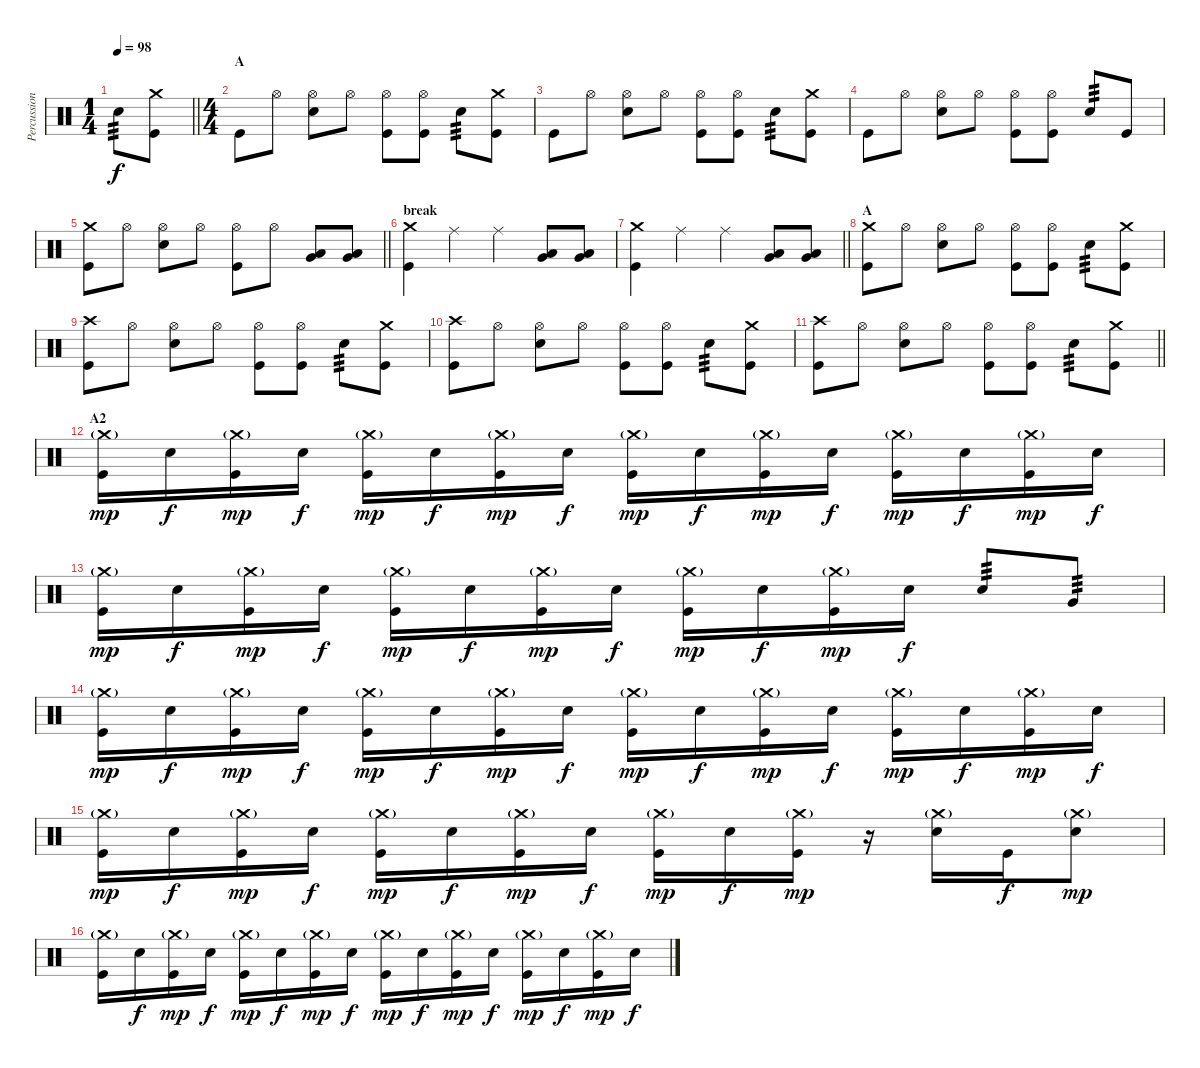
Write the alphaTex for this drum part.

\track ("Percussion" "Percussion") {instrument percussion}
\staff {score}
\articulation defaults
\ts (1 4)
\tempo 98
\clef neutral
\barLineRight lightlight
\ks c "Snare (hit) 2".8{tp 3 dy f}
("Kick (hit)" "Crash medium (hit)").8 |
\ts (4 4)
\section ("" "A")
"Kick (hit)".8 "Hi-Hat (open)".8 ("Hi-Hat (open)" "Snare (hit) 2").8 "Hi-Hat (open)".8 ("Hi-Hat (open)" "Kick (hit)").8 ("Hi-Hat (open)" "Kick (hit)").8 "Snare (hit) 2".8{tp 3} ("Kick (hit)" "Crash medium (hit)").8 |
"Kick (hit)".8 "Hi-Hat (open)".8 ("Hi-Hat (open)" "Snare (hit) 2").8 "Hi-Hat (open)".8 ("Hi-Hat (open)" "Kick (hit)").8 ("Hi-Hat (open)" "Kick (hit)").8 "Snare (hit) 2".8{tp 3} ("Kick (hit)" "Crash medium (hit)").8 |
"Kick (hit)".8 "Hi-Hat (open)".8 ("Hi-Hat (open)" "Snare (hit) 2").8 "Hi-Hat (open)".8 ("Hi-Hat (open)" "Kick (hit)").8 ("Hi-Hat (open)" "Kick (hit)").8 "Snare (hit) 2".8{tp 3} "Kick (hit)".8 |
\barLineRight lightlight
("Kick (hit)" "Crash medium (hit)").8 "Hi-Hat (open)".8 ("Hi-Hat (open)" "Snare (hit) 2").8 "Hi-Hat (open)".8 ("Hi-Hat (open)" "Kick (hit)").8 "Hi-Hat (open)".8 ("Low Floor Tom (hit)" "Very Low Tom (hit)").8 ("Low Floor Tom (hit)" "Very Low Tom (hit)").8 |
\section ("" "break")
("Kick (hit)" "Crash medium (hit)").4 "Ride (middle)".4 "Ride (middle)".4 ("Low Floor Tom (hit)" "Very Low Tom (hit)").8 ("Low Floor Tom (hit)" "Very Low Tom (hit)").8 |
\barLineRight lightlight
("Kick (hit)" "Crash medium (hit)").4 "Ride (middle)".4 "Ride (middle)".4 ("Low Floor Tom (hit)" "Very Low Tom (hit)").8 ("Low Floor Tom (hit)" "Very Low Tom (hit)").8 |
\section ("" "A")
("Kick (hit)" "Crash medium (hit)").8 "Hi-Hat (open)".8 ("Hi-Hat (open)" "Snare (hit) 2").8 "Hi-Hat (open)".8 ("Hi-Hat (open)" "Kick (hit)").8 ("Hi-Hat (open)" "Kick (hit)").8 "Snare (hit) 2".8{tp 3} ("Kick (hit)" "Crash medium (hit)").8 |
("Kick (hit)" "Crash high (hit)").8 "Hi-Hat (open)".8 ("Hi-Hat (open)" "Snare (hit) 2").8 "Hi-Hat (open)".8 ("Hi-Hat (open)" "Kick (hit)").8 ("Hi-Hat (open)" "Kick (hit)").8 "Snare (hit) 2".8{tp 3} ("Kick (hit)" "Crash medium (hit)").8 |
("Kick (hit)" "Crash high (hit)").8 "Hi-Hat (open)".8 ("Hi-Hat (open)" "Snare (hit) 2").8 "Hi-Hat (open)".8 ("Hi-Hat (open)" "Kick (hit)").8 ("Hi-Hat (open)" "Kick (hit)").8 "Snare (hit) 2".8{tp 3} ("Kick (hit)" "Crash medium (hit)").8 |
\barLineRight lightlight
("Kick (hit)" "Crash high (hit)").8 "Hi-Hat (open)".8 ("Hi-Hat (open)" "Snare (hit) 2").8 "Hi-Hat (open)".8 ("Hi-Hat (open)" "Kick (hit)").8 ("Hi-Hat (open)" "Kick (hit)").8 "Snare (hit) 2".8{tp 3} ("Kick (hit)" "Crash medium (hit)").8 |
\section ("" "A2")
("Kick (hit)" "Crash medium (hit)"{g}).16{dy mp} "Snare (hit) 2".16{dy f} ("Kick (hit)" "Crash medium (hit)"{g}).16{dy mp} "Snare (hit) 2".16{dy f} ("Kick (hit)" "Crash medium (hit)"{g}).16{dy mp} "Snare (hit) 2".16{dy f} ("Kick (hit)" "Crash medium (hit)"{g}).16{dy mp} "Snare (hit) 2".16{dy f} ("Kick (hit)" "Crash medium (hit)"{g}).16{dy mp} "Snare (hit) 2".16{dy f} ("Kick (hit)" "Crash medium (hit)"{g}).16{dy mp} "Snare (hit) 2".16{dy f} ("Kick (hit)" "Crash medium (hit)"{g}).16{dy mp} "Snare (hit) 2".16{dy f} ("Kick (hit)" "Crash medium (hit)"{g}).16{dy mp} "Snare (hit) 2".16{dy f} |
("Kick (hit)" "Crash medium (hit)"{g}).16{dy mp} "Snare (hit) 2".16{dy f} ("Kick (hit)" "Crash medium (hit)"{g}).16{dy mp} "Snare (hit) 2".16{dy f} ("Kick (hit)" "Crash medium (hit)"{g}).16{dy mp} "Snare (hit) 2".16{dy f} ("Kick (hit)" "Crash medium (hit)"{g}).16{dy mp} "Snare (hit) 2".16{dy f} ("Kick (hit)" "Crash medium (hit)"{g}).16{dy mp} "Snare (hit) 2".16{dy f} ("Kick (hit)" "Crash medium (hit)"{g}).16{dy mp} "Snare (hit) 2".16{dy f} "Snare (hit) 2".8{tp 3} "Very Low Tom (hit)".8{tp 3} |
("Kick (hit)" "Crash medium (hit)"{g}).16{dy mp} "Snare (hit) 2".16{dy f} ("Kick (hit)" "Crash medium (hit)"{g}).16{dy mp} "Snare (hit) 2".16{dy f} ("Kick (hit)" "Crash medium (hit)"{g}).16{dy mp} "Snare (hit) 2".16{dy f} ("Kick (hit)" "Crash medium (hit)"{g}).16{dy mp} "Snare (hit) 2".16{dy f} ("Kick (hit)" "Crash medium (hit)"{g}).16{dy mp} "Snare (hit) 2".16{dy f} ("Kick (hit)" "Crash medium (hit)"{g}).16{dy mp} "Snare (hit) 2".16{dy f} ("Kick (hit)" "Crash medium (hit)"{g}).16{dy mp} "Snare (hit) 2".16{dy f} ("Kick (hit)" "Crash medium (hit)"{g}).16{dy mp} "Snare (hit) 2".16{dy f} |
("Kick (hit)" "Crash medium (hit)"{g}).16{dy mp} "Snare (hit) 2".16{dy f} ("Kick (hit)" "Crash medium (hit)"{g}).16{dy mp} "Snare (hit) 2".16{dy f} ("Kick (hit)" "Crash medium (hit)"{g}).16{dy mp} "Snare (hit) 2".16{dy f} ("Kick (hit)" "Crash medium (hit)"{g}).16{dy mp} "Snare (hit) 2".16{dy f} ("Kick (hit)" "Crash medium (hit)"{g}).16{dy mp} "Snare (hit) 2".16{dy f} ("Kick (hit)" "Crash medium (hit)"{g}).16{dy mp} r.16 ("Snare (hit) 2" "Crash medium (hit)"{g}).16 "Kick (hit)".16{dy f} ("Snare (hit) 2" "Crash medium (hit)"{g}).8{dy mp} |
("Kick (hit)" "Crash medium (hit)"{g}).16 "Snare (hit) 2".16{dy f} ("Kick (hit)" "Crash medium (hit)"{g}).16{dy mp} "Snare (hit) 2".16{dy f} ("Kick (hit)" "Crash medium (hit)"{g}).16{dy mp} "Snare (hit) 2".16{dy f} ("Kick (hit)" "Crash medium (hit)"{g}).16{dy mp} "Snare (hit) 2".16{dy f} ("Kick (hit)" "Crash medium (hit)"{g}).16{dy mp} "Snare (hit) 2".16{dy f} ("Kick (hit)" "Crash medium (hit)"{g}).16{dy mp} "Snare (hit) 2".16{dy f} ("Kick (hit)" "Crash medium (hit)"{g}).16{dy mp} "Snare (hit) 2".16{dy f} ("Kick (hit)" "Crash medium (hit)"{g}).16{dy mp} "Snare (hit) 2".16{dy f}
